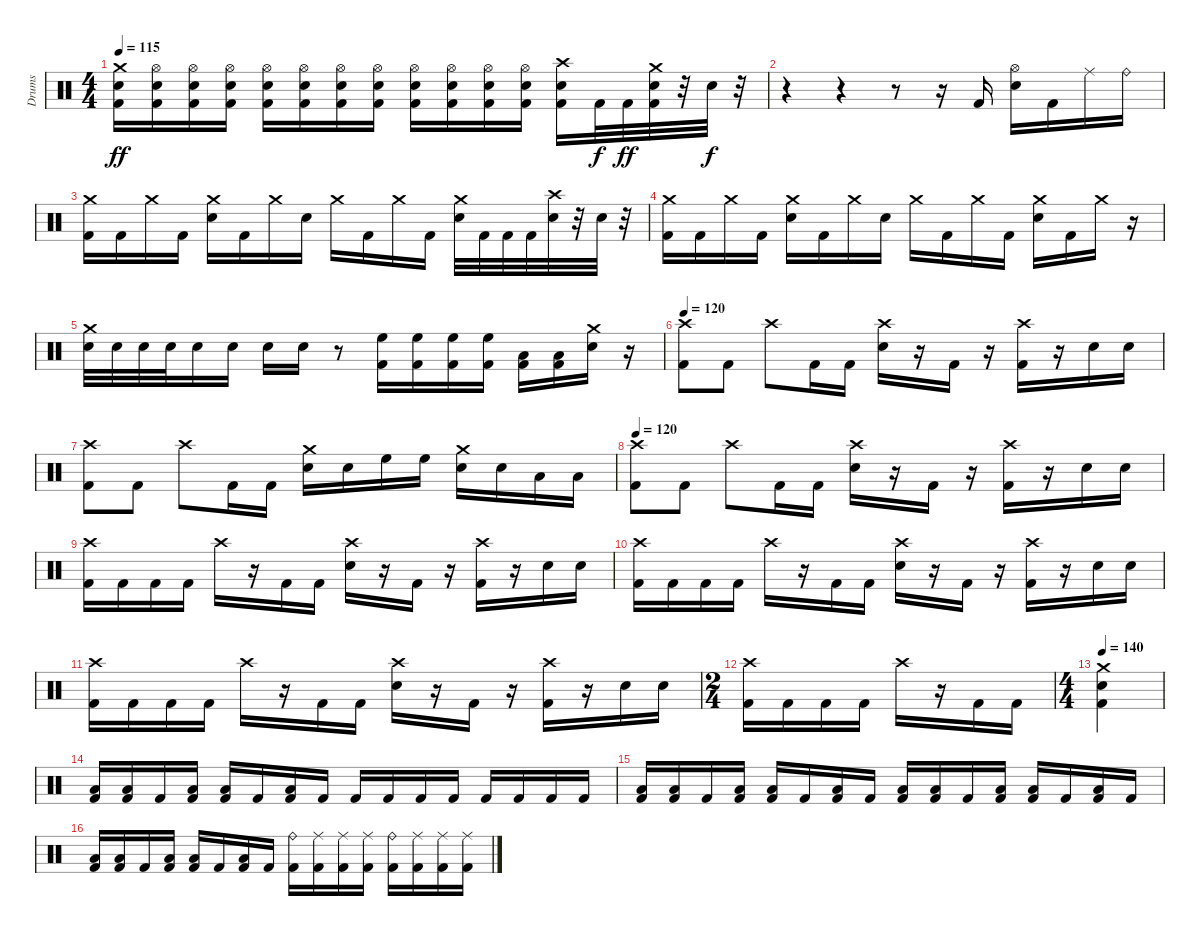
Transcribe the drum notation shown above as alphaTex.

\track ("Drums" "Drums") {instrument percussion}
\staff {score}
\articulation defaults
\ts (4 4)
\tempo 115
\clef neutral
\ks c
("Crash medium (hit)" "Electric Snare (hit)" "Kick (hit) 2").16{dy ff} ("Hi-Hat (open)" "Electric Snare (hit)" "Kick (hit) 2").16 ("Hi-Hat (open)" "Electric Snare (hit)" "Kick (hit) 2").16 ("Hi-Hat (open)" "Electric Snare (hit)" "Kick (hit) 2").16 ("Hi-Hat (open)" "Electric Snare (hit)" "Kick (hit) 2").16 ("Hi-Hat (open)" "Electric Snare (hit)" "Kick (hit) 2").16 ("Hi-Hat (open)" "Electric Snare (hit)" "Kick (hit) 2").16 ("Hi-Hat (open)" "Electric Snare (hit)" "Kick (hit) 2").16 ("Hi-Hat (open)" "Electric Snare (hit)" "Kick (hit) 2").16 ("Hi-Hat (open)" "Electric Snare (hit)" "Kick (hit) 2").16 ("Hi-Hat (open)" "Electric Snare (hit)" "Kick (hit) 2").16 ("Hi-Hat (open)" "Electric Snare (hit)" "Kick (hit) 2").16 ("Crash high (hit)" "Electric Snare (hit)" "Kick (hit) 2").16 "Kick (hit) 2".32{dy f} "Kick (hit) 2".32{dy ff} ("Crash medium (hit)" "Electric Snare (hit)" "Kick (hit) 2").32 r.32 "Electric Snare (hit)".32{dy f} r.32 |
r.4 r.4 r.8 r.16 "Kick (hit) 2".16 ("Hi-Hat (open)" "Electric Snare (hit)").16 "Kick (hit) 2".16 "Ride (middle)".16 "Ride (bell)".16 |
("Crash medium (hit)" "Kick (hit) 2").16 "Kick (hit) 2".16 "Crash medium (hit)".16 "Kick (hit) 2".16 ("Crash medium (hit)" "Electric Snare (hit)").16 "Kick (hit) 2".16 "Crash medium (hit)".16 "Electric Snare (hit)".16 "Crash medium (hit)".16 "Kick (hit) 2".16 "Crash medium (hit)".16 "Kick (hit) 2".16 ("Crash medium (hit)" "Electric Snare (hit)").32 "Kick (hit) 2".32 "Kick (hit) 2".32 "Kick (hit) 2".32 ("Crash high (hit)" "Electric Snare (hit)").32 r.32 "Electric Snare (hit)".32 r.32 |
("Crash medium (hit)" "Kick (hit) 2").16 "Kick (hit) 2".16 "Crash medium (hit)".16 "Kick (hit) 2".16 ("Crash medium (hit)" "Electric Snare (hit)").16 "Kick (hit) 2".16 "Crash medium (hit)".16 "Electric Snare (hit)".16 "Crash medium (hit)".16 "Kick (hit) 2".16 "Crash medium (hit)".16 "Kick (hit) 2".16 ("Crash medium (hit)" "Electric Snare (hit)").16 "Kick (hit) 2".16 "Crash medium (hit)".16 r.16 |
("Crash medium (hit)" "Electric Snare (hit)").32 "Electric Snare (hit)".32 "Electric Snare (hit)".32 "Electric Snare (hit)".32 "Electric Snare (hit)".16 "Electric Snare (hit)".16 "Electric Snare (hit)".16 "Electric Snare (hit)".16 r.8 ("High Floor Tom (hit)" "Kick (hit) 2").16 ("High Floor Tom (hit)" "Kick (hit) 2").16 ("High Floor Tom (hit)" "Kick (hit) 2").16 ("High Floor Tom (hit)" "Kick (hit) 2").16 ("Low Tom (hit)" "Kick (hit) 2").16 ("Low Tom (hit)" "Kick (hit) 2").16 ("Crash medium (hit)" "Electric Snare (hit)").16 r.16 |
\tempo 120
("Crash high (hit)" "Kick (hit) 2").8 "Kick (hit) 2".8 "Crash high (hit)".8 "Kick (hit) 2".16 "Kick (hit) 2".16 ("Crash high (hit)" "Electric Snare (hit)").16 r.16 "Kick (hit) 2".16 r.16 ("Crash high (hit)" "Kick (hit) 2").16 r.16 "Electric Snare (hit)".16 "Electric Snare (hit)".16 |
("Crash high (hit)" "Kick (hit) 2").8 "Kick (hit) 2".8 "Crash high (hit)".8 "Kick (hit) 2".16 "Kick (hit) 2".16 ("Crash medium (hit)" "Electric Snare (hit)").16 "Electric Snare (hit)".16 "High Floor Tom (hit)".16 "High Floor Tom (hit)".16 ("Crash medium (hit)" "Electric Snare (hit)").16 "Electric Snare (hit)".16 "Low Tom (hit)".16 "Low Tom (hit)".16 |
\tempo 120
("Crash high (hit)" "Kick (hit) 2").8 "Kick (hit) 2".8 "Crash high (hit)".8 "Kick (hit) 2".16 "Kick (hit) 2".16 ("Crash high (hit)" "Electric Snare (hit)").16 r.16 "Kick (hit) 2".16 r.16 ("Crash high (hit)" "Kick (hit) 2").16 r.16 "Electric Snare (hit)".16 "Electric Snare (hit)".16 |
("Crash high (hit)" "Kick (hit) 2").16 "Kick (hit) 2".16 "Kick (hit) 2".16 "Kick (hit) 2".16 "Crash high (hit)".16 r.16 "Kick (hit) 2".16 "Kick (hit) 2".16 ("Crash high (hit)" "Electric Snare (hit)").16 r.16 "Kick (hit) 2".16 r.16 ("Crash high (hit)" "Kick (hit) 2").16 r.16 "Electric Snare (hit)".16 "Electric Snare (hit)".16 |
("Crash high (hit)" "Kick (hit) 2").16 "Kick (hit) 2".16 "Kick (hit) 2".16 "Kick (hit) 2".16 "Crash high (hit)".16 r.16 "Kick (hit) 2".16 "Kick (hit) 2".16 ("Crash high (hit)" "Electric Snare (hit)").16 r.16 "Kick (hit) 2".16 r.16 ("Crash high (hit)" "Kick (hit) 2").16 r.16 "Electric Snare (hit)".16 "Electric Snare (hit)".16 |
("Crash high (hit)" "Kick (hit) 2").16 "Kick (hit) 2".16 "Kick (hit) 2".16 "Kick (hit) 2".16 "Crash high (hit)".16 r.16 "Kick (hit) 2".16 "Kick (hit) 2".16 ("Crash high (hit)" "Electric Snare (hit)").16 r.16 "Kick (hit) 2".16 r.16 ("Crash high (hit)" "Kick (hit) 2").16 r.16 "Electric Snare (hit)".16 "Electric Snare (hit)".16 |
\ts (2 4)
("Crash high (hit)" "Kick (hit) 2").16 "Kick (hit) 2".16 "Kick (hit) 2".16 "Kick (hit) 2".16 "Crash high (hit)".16 r.16 "Kick (hit) 2".16 "Kick (hit) 2".16 |
\ts (4 4)
\tempo 140
("Crash medium (hit)" "Electric Snare (hit)" "Kick (hit) 2").4 |
("Low Floor Tom (hit)" "Kick (hit) 2").16 ("Low Floor Tom (hit)" "Kick (hit) 2").16 "Kick (hit) 2".16 ("Low Floor Tom (hit)" "Kick (hit) 2").16 ("Low Floor Tom (hit)" "Kick (hit) 2").16 "Kick (hit) 2".16 ("Low Floor Tom (hit)" "Kick (hit) 2").16 "Kick (hit) 2".16 "Kick (hit) 2".16 "Kick (hit) 2".16 "Kick (hit) 2".16 "Kick (hit) 2".16 "Kick (hit) 2".16 "Kick (hit) 2".16 "Kick (hit) 2".16 "Kick (hit) 2".16 |
("Low Floor Tom (hit)" "Kick (hit) 2").16 ("Low Floor Tom (hit)" "Kick (hit) 2").16 "Kick (hit) 2".16 ("Low Floor Tom (hit)" "Kick (hit) 2").16 ("Low Floor Tom (hit)" "Kick (hit) 2").16 "Kick (hit) 2".16 ("Low Floor Tom (hit)" "Kick (hit) 2").16 "Kick (hit) 2".16 ("Low Floor Tom (hit)" "Kick (hit) 2").16 ("Low Floor Tom (hit)" "Kick (hit) 2").16 "Kick (hit) 2".16 ("Low Floor Tom (hit)" "Kick (hit) 2").16 ("Low Floor Tom (hit)" "Kick (hit) 2").16 "Kick (hit) 2".16 ("Low Floor Tom (hit)" "Kick (hit) 2").16 "Kick (hit) 2".16 |
("Low Floor Tom (hit)" "Kick (hit) 2").16 ("Low Floor Tom (hit)" "Kick (hit) 2").16 "Kick (hit) 2".16 ("Low Floor Tom (hit)" "Kick (hit) 2").16 ("Low Floor Tom (hit)" "Kick (hit) 2").16 "Kick (hit) 2".16 ("Low Floor Tom (hit)" "Kick (hit) 2").16 "Kick (hit) 2".16 ("Ride (bell)" "Kick (hit) 2").16 ("Ride (middle)" "Kick (hit) 2").16 ("Ride (middle)" "Kick (hit) 2").16 ("Ride (middle)" "Kick (hit) 2").16 ("Ride (bell)" "Kick (hit) 2").16 ("Ride (middle)" "Kick (hit) 2").16 ("Ride (middle)" "Kick (hit) 2").16 ("Ride (middle)" "Kick (hit) 2").16
